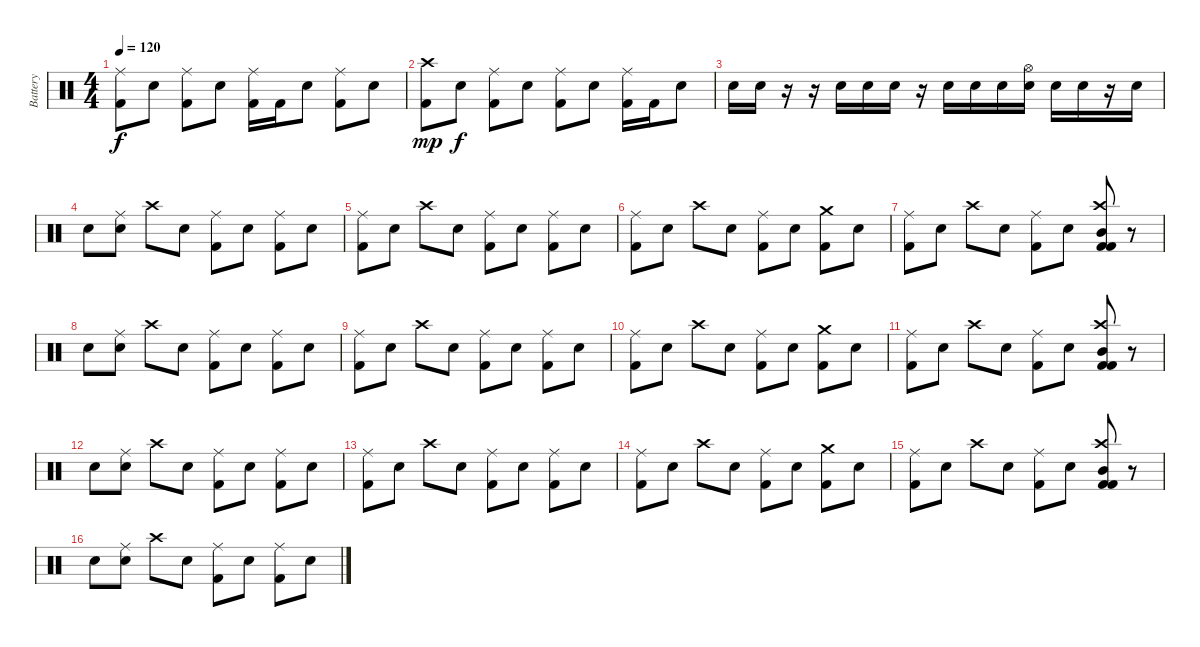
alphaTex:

\track ("Battery" "Battery") {instrument percussion}
\staff {score}
\articulation defaults
\ts (4 4)
\tempo 120
\clef neutral
\ks c
("Ride (middle)" "Kick (hit) 2").8{dy f} "Electric Snare (hit)".8 ("Ride (middle)" "Kick (hit) 2").8 "Electric Snare (hit)".8 ("Ride (middle)" "Kick (hit) 2").16 "Kick (hit) 2".16 "Electric Snare (hit)".8 ("Ride (middle)" "Kick (hit) 2").8 "Electric Snare (hit)".8 |
("Crash high (hit)" "Kick (hit) 2").8{dy mp} "Electric Snare (hit)".8{dy f} ("Ride (middle)" "Kick (hit) 2").8 "Electric Snare (hit)".8 ("Ride (middle)" "Kick (hit) 2").8 "Electric Snare (hit)".8 ("Ride (middle)" "Kick (hit) 2").16 "Kick (hit) 2".16 "Electric Snare (hit)".8 |
"Electric Snare (hit)".16 "Electric Snare (hit)".16 r.16 r.16 "Electric Snare (hit)".16 "Electric Snare (hit)".16 "Electric Snare (hit)".16 r.16 "Electric Snare (hit)".16 "Electric Snare (hit)".16 "Electric Snare (hit)".16 ("Hi-Hat (open)" "Electric Snare (hit)").16 "Electric Snare (hit)".16 "Electric Snare (hit)".16 r.16 "Electric Snare (hit)".16 |
"Electric Snare (hit)".8 ("Ride (middle)" "Electric Snare (hit)").8 "Crash high (hit)".8 "Electric Snare (hit)".8 ("Ride (middle)" "Kick (hit) 2").8 "Electric Snare (hit)".8 ("Ride (middle)" "Kick (hit) 2").8 "Electric Snare (hit)".8 |
("Ride (middle)" "Kick (hit) 2").8 "Electric Snare (hit)".8 "Crash high (hit)".8 "Electric Snare (hit)".8 ("Ride (middle)" "Kick (hit) 2").8 "Electric Snare (hit)".8 ("Ride (middle)" "Kick (hit) 2").8 "Electric Snare (hit)".8 |
("Ride (middle)" "Kick (hit) 2").8 "Electric Snare (hit)".8 "Crash high (hit)".8 "Electric Snare (hit)".8 ("Ride (middle)" "Kick (hit) 2").8 "Electric Snare (hit)".8 ("Crash medium (hit)" "Kick (hit) 2").8 "Electric Snare (hit)".8 |
("Ride (middle)" "Kick (hit) 2").8 "Electric Snare (hit)".8 "Crash high (hit)".8 "Electric Snare (hit)".8 ("Ride (middle)" "Kick (hit) 2").8 "Electric Snare (hit)".8 ("Crash high (hit)" "Mid Tom (hit)" "Kick (hit) 2" "Kick (hit) 2").8 r.8 |
"Electric Snare (hit)".8 ("Ride (middle)" "Electric Snare (hit)").8 "Crash high (hit)".8 "Electric Snare (hit)".8 ("Ride (middle)" "Kick (hit) 2").8 "Electric Snare (hit)".8 ("Ride (middle)" "Kick (hit) 2").8 "Electric Snare (hit)".8 |
("Ride (middle)" "Kick (hit) 2").8 "Electric Snare (hit)".8 "Crash high (hit)".8 "Electric Snare (hit)".8 ("Ride (middle)" "Kick (hit) 2").8 "Electric Snare (hit)".8 ("Ride (middle)" "Kick (hit) 2").8 "Electric Snare (hit)".8 |
("Ride (middle)" "Kick (hit) 2").8 "Electric Snare (hit)".8 "Crash high (hit)".8 "Electric Snare (hit)".8 ("Ride (middle)" "Kick (hit) 2").8 "Electric Snare (hit)".8 ("Crash medium (hit)" "Kick (hit) 2").8 "Electric Snare (hit)".8 |
("Ride (middle)" "Kick (hit) 2").8 "Electric Snare (hit)".8 "Crash high (hit)".8 "Electric Snare (hit)".8 ("Ride (middle)" "Kick (hit) 2").8 "Electric Snare (hit)".8 ("Crash high (hit)" "Mid Tom (hit)" "Kick (hit) 2" "Kick (hit) 2").8 r.8 |
"Electric Snare (hit)".8 ("Ride (middle)" "Electric Snare (hit)").8 "Crash high (hit)".8 "Electric Snare (hit)".8 ("Ride (middle)" "Kick (hit) 2").8 "Electric Snare (hit)".8 ("Ride (middle)" "Kick (hit) 2").8 "Electric Snare (hit)".8 |
("Ride (middle)" "Kick (hit) 2").8 "Electric Snare (hit)".8 "Crash high (hit)".8 "Electric Snare (hit)".8 ("Ride (middle)" "Kick (hit) 2").8 "Electric Snare (hit)".8 ("Ride (middle)" "Kick (hit) 2").8 "Electric Snare (hit)".8 |
("Ride (middle)" "Kick (hit) 2").8 "Electric Snare (hit)".8 "Crash high (hit)".8 "Electric Snare (hit)".8 ("Ride (middle)" "Kick (hit) 2").8 "Electric Snare (hit)".8 ("Crash medium (hit)" "Kick (hit) 2").8 "Electric Snare (hit)".8 |
("Ride (middle)" "Kick (hit) 2").8 "Electric Snare (hit)".8 "Crash high (hit)".8 "Electric Snare (hit)".8 ("Ride (middle)" "Kick (hit) 2").8 "Electric Snare (hit)".8 ("Crash high (hit)" "Mid Tom (hit)" "Kick (hit) 2" "Kick (hit) 2").8 r.8 |
"Electric Snare (hit)".8 ("Ride (middle)" "Electric Snare (hit)").8 "Crash high (hit)".8 "Electric Snare (hit)".8 ("Ride (middle)" "Kick (hit) 2").8 "Electric Snare (hit)".8 ("Ride (middle)" "Kick (hit) 2").8 "Electric Snare (hit)".8
